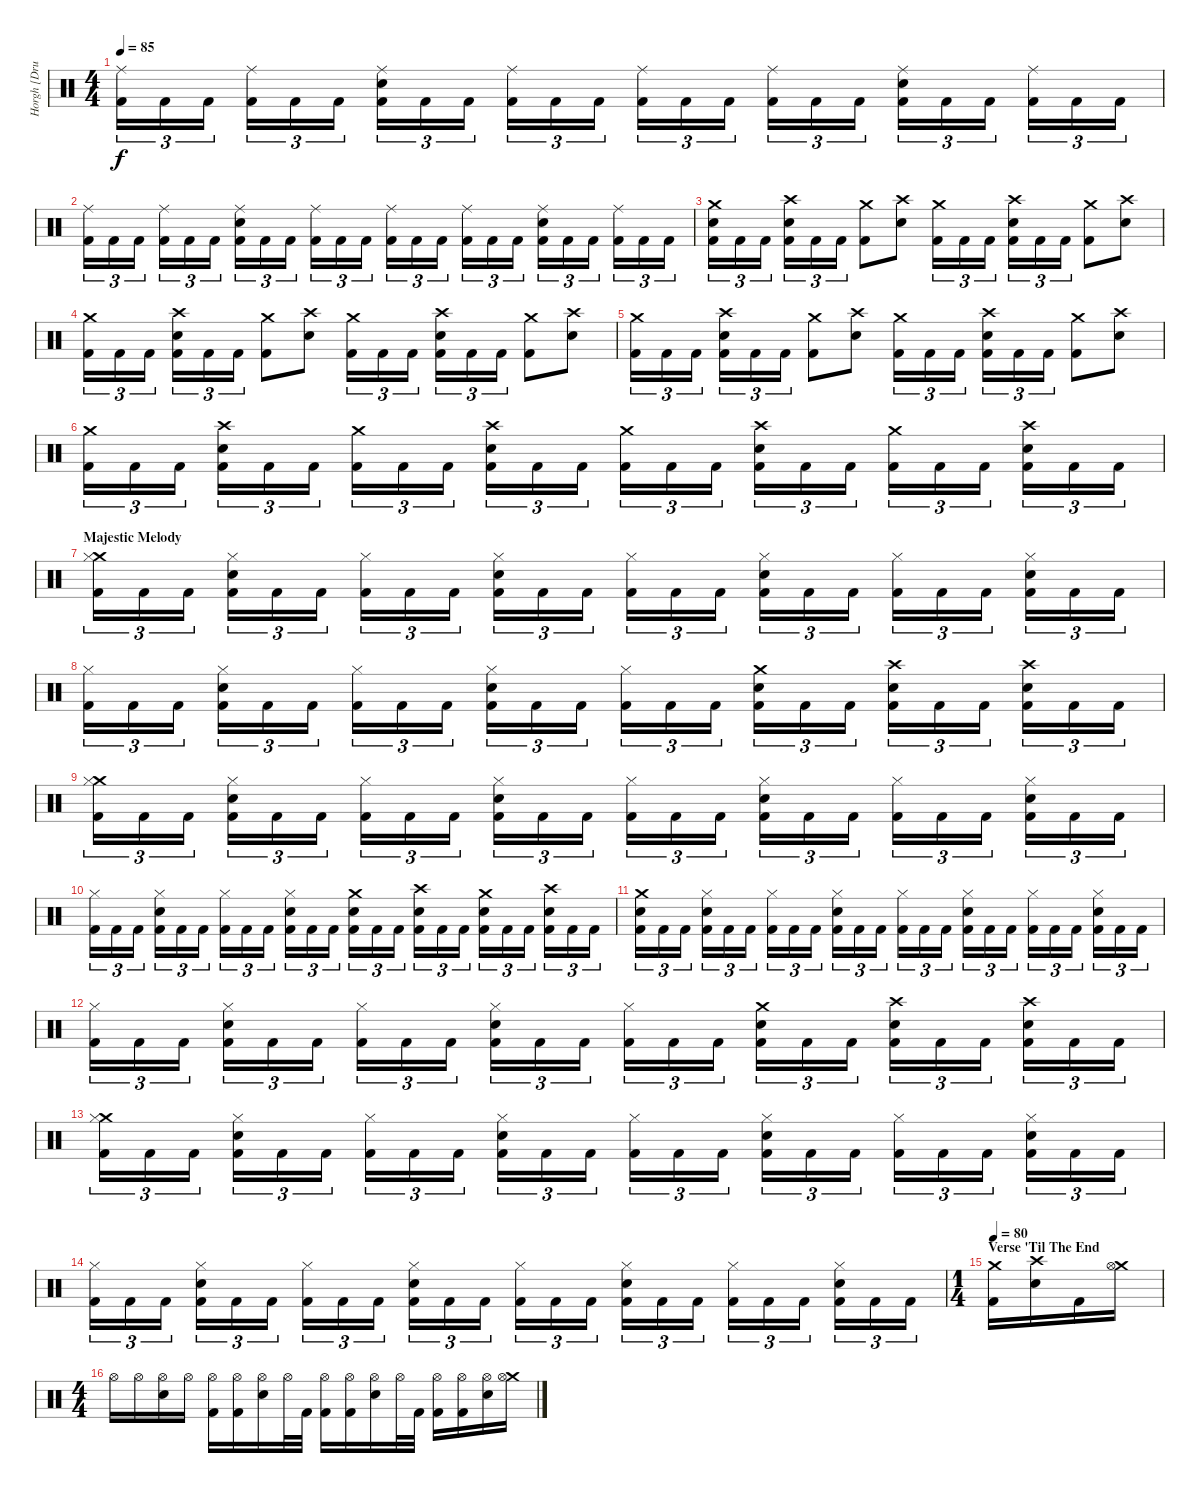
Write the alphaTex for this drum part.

\track ("Horgh [Drums]" "Horgh [Dru") {instrument percussion}
\staff {score}
\articulation defaults
\ts (4 4)
\tempo 85
\clef neutral
\ks c
("Ride (middle)" "Kick (hit) 2").16{tu (3 2) dy f} "Kick (hit) 2".16{tu (3 2)} "Kick (hit) 2".16{tu (3 2)} ("Ride (middle)" "Kick (hit) 2").16{tu (3 2)} "Kick (hit) 2".16{tu (3 2)} "Kick (hit) 2".16{tu (3 2)} ("Ride (middle)" "Snare (hit) 2" "Kick (hit) 2").16{tu (3 2)} "Kick (hit) 2".16{tu (3 2)} "Kick (hit) 2".16{tu (3 2)} ("Ride (middle)" "Kick (hit) 2").16{tu (3 2)} "Kick (hit) 2".16{tu (3 2)} "Kick (hit) 2".16{tu (3 2)} ("Ride (middle)" "Kick (hit) 2").16{tu (3 2)} "Kick (hit) 2".16{tu (3 2)} "Kick (hit) 2".16{tu (3 2)} ("Ride (middle)" "Kick (hit) 2").16{tu (3 2)} "Kick (hit) 2".16{tu (3 2)} "Kick (hit) 2".16{tu (3 2)} ("Ride (middle)" "Snare (hit) 2" "Kick (hit) 2").16{tu (3 2)} "Kick (hit) 2".16{tu (3 2)} "Kick (hit) 2".16{tu (3 2)} ("Ride (middle)" "Kick (hit) 2").16{tu (3 2)} "Kick (hit) 2".16{tu (3 2)} "Kick (hit) 2".16{tu (3 2)} |
("Ride (middle)" "Kick (hit) 2").16{tu (3 2)} "Kick (hit) 2".16{tu (3 2)} "Kick (hit) 2".16{tu (3 2)} ("Ride (middle)" "Kick (hit) 2").16{tu (3 2)} "Kick (hit) 2".16{tu (3 2)} "Kick (hit) 2".16{tu (3 2)} ("Ride (middle)" "Snare (hit) 2" "Kick (hit) 2").16{tu (3 2)} "Kick (hit) 2".16{tu (3 2)} "Kick (hit) 2".16{tu (3 2)} ("Ride (middle)" "Kick (hit) 2").16{tu (3 2)} "Kick (hit) 2".16{tu (3 2)} "Kick (hit) 2".16{tu (3 2)} ("Ride (middle)" "Kick (hit) 2").16{tu (3 2)} "Kick (hit) 2".16{tu (3 2)} "Kick (hit) 2".16{tu (3 2)} ("Ride (middle)" "Kick (hit) 2").16{tu (3 2)} "Kick (hit) 2".16{tu (3 2)} "Kick (hit) 2".16{tu (3 2)} ("Ride (middle)" "Snare (hit) 2" "Kick (hit) 2").16{tu (3 2)} "Kick (hit) 2".16{tu (3 2)} "Kick (hit) 2".16{tu (3 2)} ("Ride (middle)" "Kick (hit) 2").16{tu (3 2)} "Kick (hit) 2".16{tu (3 2)} "Kick (hit) 2".16{tu (3 2)} |
\section ("" "")
("Crash medium (hit)" "Snare (hit) 2" "Kick (hit) 2").16{tu (3 2)} "Kick (hit) 2".16{tu (3 2)} "Kick (hit) 2".16{tu (3 2)} ("Crash high (hit)" "Snare (hit) 2" "Kick (hit) 2").16{tu (3 2)} "Kick (hit) 2".16{tu (3 2)} "Kick (hit) 2".16{tu (3 2)} ("Crash medium (hit)" "Kick (hit) 2").8 ("Crash high (hit)" "Snare (hit) 2").8 ("Crash medium (hit)" "Kick (hit) 2").16{tu (3 2)} "Kick (hit) 2".16{tu (3 2)} "Kick (hit) 2".16{tu (3 2)} ("Crash high (hit)" "Snare (hit) 2" "Kick (hit) 2").16{tu (3 2)} "Kick (hit) 2".16{tu (3 2)} "Kick (hit) 2".16{tu (3 2)} ("Crash medium (hit)" "Kick (hit) 2").8 ("Crash high (hit)" "Snare (hit) 2").8 |
("Crash medium (hit)" "Kick (hit) 2").16{tu (3 2)} "Kick (hit) 2".16{tu (3 2)} "Kick (hit) 2".16{tu (3 2)} ("Crash high (hit)" "Snare (hit) 2" "Kick (hit) 2").16{tu (3 2)} "Kick (hit) 2".16{tu (3 2)} "Kick (hit) 2".16{tu (3 2)} ("Crash medium (hit)" "Kick (hit) 2").8 ("Crash high (hit)" "Snare (hit) 2").8 ("Crash medium (hit)" "Kick (hit) 2").16{tu (3 2)} "Kick (hit) 2".16{tu (3 2)} "Kick (hit) 2".16{tu (3 2)} ("Crash high (hit)" "Snare (hit) 2" "Kick (hit) 2").16{tu (3 2)} "Kick (hit) 2".16{tu (3 2)} "Kick (hit) 2".16{tu (3 2)} ("Crash medium (hit)" "Kick (hit) 2").8 ("Crash high (hit)" "Snare (hit) 2").8 |
("Crash medium (hit)" "Kick (hit) 2").16{tu (3 2)} "Kick (hit) 2".16{tu (3 2)} "Kick (hit) 2".16{tu (3 2)} ("Crash high (hit)" "Snare (hit) 2" "Kick (hit) 2").16{tu (3 2)} "Kick (hit) 2".16{tu (3 2)} "Kick (hit) 2".16{tu (3 2)} ("Crash medium (hit)" "Kick (hit) 2").8 ("Crash high (hit)" "Snare (hit) 2").8 ("Crash medium (hit)" "Kick (hit) 2").16{tu (3 2)} "Kick (hit) 2".16{tu (3 2)} "Kick (hit) 2".16{tu (3 2)} ("Crash high (hit)" "Snare (hit) 2" "Kick (hit) 2").16{tu (3 2)} "Kick (hit) 2".16{tu (3 2)} "Kick (hit) 2".16{tu (3 2)} ("Crash medium (hit)" "Kick (hit) 2").8 ("Crash high (hit)" "Snare (hit) 2").8 |
("Crash medium (hit)" "Kick (hit) 2").16{tu (3 2)} "Kick (hit) 2".16{tu (3 2)} "Kick (hit) 2".16{tu (3 2)} ("Crash high (hit)" "Snare (hit) 2" "Kick (hit) 2").16{tu (3 2)} "Kick (hit) 2".16{tu (3 2)} "Kick (hit) 2".16{tu (3 2)} ("Crash medium (hit)" "Kick (hit) 2").16{tu (3 2)} "Kick (hit) 2".16{tu (3 2)} "Kick (hit) 2".16{tu (3 2)} ("Crash high (hit)" "Snare (hit) 2" "Kick (hit) 2").16{tu (3 2)} "Kick (hit) 2".16{tu (3 2)} "Kick (hit) 2".16{tu (3 2)} ("Crash medium (hit)" "Kick (hit) 2").16{tu (3 2)} "Kick (hit) 2".16{tu (3 2)} "Kick (hit) 2".16{tu (3 2)} ("Crash high (hit)" "Snare (hit) 2" "Kick (hit) 2").16{tu (3 2)} "Kick (hit) 2".16{tu (3 2)} "Kick (hit) 2".16{tu (3 2)} ("Crash medium (hit)" "Kick (hit) 2").16{tu (3 2)} "Kick (hit) 2".16{tu (3 2)} "Kick (hit) 2".16{tu (3 2)} ("Crash high (hit)" "Snare (hit) 2" "Kick (hit) 2").16{tu (3 2)} "Kick (hit) 2".16{tu (3 2)} "Kick (hit) 2".16{tu (3 2)} |
\section ("" "Majestic Melody")
("Crash medium (hit)" "Hi-Hat (closed)" "Kick (hit) 2").16{tu (3 2)} "Kick (hit) 2".16{tu (3 2)} "Kick (hit) 2".16{tu (3 2)} ("Hi-Hat (closed)" "Snare (hit) 2" "Kick (hit) 2").16{tu (3 2)} "Kick (hit) 2".16{tu (3 2)} "Kick (hit) 2".16{tu (3 2)} ("Hi-Hat (closed)" "Kick (hit) 2").16{tu (3 2)} "Kick (hit) 2".16{tu (3 2)} "Kick (hit) 2".16{tu (3 2)} ("Hi-Hat (closed)" "Snare (hit) 2" "Kick (hit) 2").16{tu (3 2)} "Kick (hit) 2".16{tu (3 2)} "Kick (hit) 2".16{tu (3 2)} ("Hi-Hat (closed)" "Kick (hit) 2").16{tu (3 2)} "Kick (hit) 2".16{tu (3 2)} "Kick (hit) 2".16{tu (3 2)} ("Hi-Hat (closed)" "Snare (hit) 2" "Kick (hit) 2").16{tu (3 2)} "Kick (hit) 2".16{tu (3 2)} "Kick (hit) 2".16{tu (3 2)} ("Hi-Hat (closed)" "Kick (hit) 2").16{tu (3 2)} "Kick (hit) 2".16{tu (3 2)} "Kick (hit) 2".16{tu (3 2)} ("Hi-Hat (closed)" "Snare (hit) 2" "Kick (hit) 2").16{tu (3 2)} "Kick (hit) 2".16{tu (3 2)} "Kick (hit) 2".16{tu (3 2)} |
("Hi-Hat (closed)" "Kick (hit) 2").16{tu (3 2)} "Kick (hit) 2".16{tu (3 2)} "Kick (hit) 2".16{tu (3 2)} ("Hi-Hat (closed)" "Snare (hit) 2" "Kick (hit) 2").16{tu (3 2)} "Kick (hit) 2".16{tu (3 2)} "Kick (hit) 2".16{tu (3 2)} ("Hi-Hat (closed)" "Kick (hit) 2").16{tu (3 2)} "Kick (hit) 2".16{tu (3 2)} "Kick (hit) 2".16{tu (3 2)} ("Hi-Hat (closed)" "Snare (hit) 2" "Kick (hit) 2").16{tu (3 2)} "Kick (hit) 2".16{tu (3 2)} "Kick (hit) 2".16{tu (3 2)} ("Hi-Hat (closed)" "Kick (hit) 2").16{tu (3 2)} "Kick (hit) 2".16{tu (3 2)} "Kick (hit) 2".16{tu (3 2)} ("Crash medium (hit)" "Snare (hit) 2" "Kick (hit) 2").16{tu (3 2)} "Kick (hit) 2".16{tu (3 2)} "Kick (hit) 2".16{tu (3 2)} ("Crash high (hit)" "Snare (hit) 2" "Kick (hit) 2").16{tu (3 2)} "Kick (hit) 2".16{tu (3 2)} "Kick (hit) 2".16{tu (3 2)} ("Crash high (hit)" "Snare (hit) 2" "Kick (hit) 2").16{tu (3 2)} "Kick (hit) 2".16{tu (3 2)} "Kick (hit) 2".16{tu (3 2)} |
("Crash medium (hit)" "Hi-Hat (closed)" "Kick (hit) 2").16{tu (3 2)} "Kick (hit) 2".16{tu (3 2)} "Kick (hit) 2".16{tu (3 2)} ("Hi-Hat (closed)" "Snare (hit) 2" "Kick (hit) 2").16{tu (3 2)} "Kick (hit) 2".16{tu (3 2)} "Kick (hit) 2".16{tu (3 2)} ("Hi-Hat (closed)" "Kick (hit) 2").16{tu (3 2)} "Kick (hit) 2".16{tu (3 2)} "Kick (hit) 2".16{tu (3 2)} ("Hi-Hat (closed)" "Snare (hit) 2" "Kick (hit) 2").16{tu (3 2)} "Kick (hit) 2".16{tu (3 2)} "Kick (hit) 2".16{tu (3 2)} ("Hi-Hat (closed)" "Kick (hit) 2").16{tu (3 2)} "Kick (hit) 2".16{tu (3 2)} "Kick (hit) 2".16{tu (3 2)} ("Hi-Hat (closed)" "Snare (hit) 2" "Kick (hit) 2").16{tu (3 2)} "Kick (hit) 2".16{tu (3 2)} "Kick (hit) 2".16{tu (3 2)} ("Hi-Hat (closed)" "Kick (hit) 2").16{tu (3 2)} "Kick (hit) 2".16{tu (3 2)} "Kick (hit) 2".16{tu (3 2)} ("Hi-Hat (closed)" "Snare (hit) 2" "Kick (hit) 2").16{tu (3 2)} "Kick (hit) 2".16{tu (3 2)} "Kick (hit) 2".16{tu (3 2)} |
("Hi-Hat (closed)" "Kick (hit) 2").16{tu (3 2)} "Kick (hit) 2".16{tu (3 2)} "Kick (hit) 2".16{tu (3 2)} ("Hi-Hat (closed)" "Snare (hit) 2" "Kick (hit) 2").16{tu (3 2)} "Kick (hit) 2".16{tu (3 2)} "Kick (hit) 2".16{tu (3 2)} ("Hi-Hat (closed)" "Kick (hit) 2").16{tu (3 2)} "Kick (hit) 2".16{tu (3 2)} "Kick (hit) 2".16{tu (3 2)} ("Hi-Hat (closed)" "Snare (hit) 2" "Kick (hit) 2").16{tu (3 2)} "Kick (hit) 2".16{tu (3 2)} "Kick (hit) 2".16{tu (3 2)} ("Crash medium (hit)" "Snare (hit) 2" "Kick (hit) 2").16{tu (3 2)} "Kick (hit) 2".16{tu (3 2)} "Kick (hit) 2".16{tu (3 2)} ("Crash high (hit)" "Snare (hit) 2" "Kick (hit) 2").16{tu (3 2)} "Kick (hit) 2".16{tu (3 2)} "Kick (hit) 2".16{tu (3 2)} ("Crash medium (hit)" "Snare (hit) 2" "Kick (hit) 2").16{tu (3 2)} "Kick (hit) 2".16{tu (3 2)} "Kick (hit) 2".16{tu (3 2)} ("Crash high (hit)" "Snare (hit) 2" "Kick (hit) 2").16{tu (3 2)} "Kick (hit) 2".16{tu (3 2)} "Kick (hit) 2".16{tu (3 2)} |
("Crash medium (hit)" "Snare (hit) 2" "Kick (hit) 2").16{tu (3 2)} "Kick (hit) 2".16{tu (3 2)} "Kick (hit) 2".16{tu (3 2)} ("Hi-Hat (closed)" "Snare (hit) 2" "Kick (hit) 2").16{tu (3 2)} "Kick (hit) 2".16{tu (3 2)} "Kick (hit) 2".16{tu (3 2)} ("Hi-Hat (closed)" "Kick (hit) 2").16{tu (3 2)} "Kick (hit) 2".16{tu (3 2)} "Kick (hit) 2".16{tu (3 2)} ("Hi-Hat (closed)" "Snare (hit) 2" "Kick (hit) 2").16{tu (3 2)} "Kick (hit) 2".16{tu (3 2)} "Kick (hit) 2".16{tu (3 2)} ("Hi-Hat (closed)" "Kick (hit) 2").16{tu (3 2)} "Kick (hit) 2".16{tu (3 2)} "Kick (hit) 2".16{tu (3 2)} ("Hi-Hat (closed)" "Snare (hit) 2" "Kick (hit) 2").16{tu (3 2)} "Kick (hit) 2".16{tu (3 2)} "Kick (hit) 2".16{tu (3 2)} ("Hi-Hat (closed)" "Kick (hit) 2").16{tu (3 2)} "Kick (hit) 2".16{tu (3 2)} "Kick (hit) 2".16{tu (3 2)} ("Hi-Hat (closed)" "Snare (hit) 2" "Kick (hit) 2").16{tu (3 2)} "Kick (hit) 2".16{tu (3 2)} "Kick (hit) 2".16{tu (3 2)} |
("Hi-Hat (closed)" "Kick (hit) 2").16{tu (3 2)} "Kick (hit) 2".16{tu (3 2)} "Kick (hit) 2".16{tu (3 2)} ("Hi-Hat (closed)" "Snare (hit) 2" "Kick (hit) 2").16{tu (3 2)} "Kick (hit) 2".16{tu (3 2)} "Kick (hit) 2".16{tu (3 2)} ("Hi-Hat (closed)" "Kick (hit) 2").16{tu (3 2)} "Kick (hit) 2".16{tu (3 2)} "Kick (hit) 2".16{tu (3 2)} ("Hi-Hat (closed)" "Snare (hit) 2" "Kick (hit) 2").16{tu (3 2)} "Kick (hit) 2".16{tu (3 2)} "Kick (hit) 2".16{tu (3 2)} ("Hi-Hat (closed)" "Kick (hit) 2").16{tu (3 2)} "Kick (hit) 2".16{tu (3 2)} "Kick (hit) 2".16{tu (3 2)} ("Crash medium (hit)" "Snare (hit) 2" "Kick (hit) 2").16{tu (3 2)} "Kick (hit) 2".16{tu (3 2)} "Kick (hit) 2".16{tu (3 2)} ("Crash high (hit)" "Snare (hit) 2" "Kick (hit) 2").16{tu (3 2)} "Kick (hit) 2".16{tu (3 2)} "Kick (hit) 2".16{tu (3 2)} ("Crash high (hit)" "Snare (hit) 2" "Kick (hit) 2").16{tu (3 2)} "Kick (hit) 2".16{tu (3 2)} "Kick (hit) 2".16{tu (3 2)} |
("Crash medium (hit)" "Hi-Hat (closed)" "Kick (hit) 2").16{tu (3 2)} "Kick (hit) 2".16{tu (3 2)} "Kick (hit) 2".16{tu (3 2)} ("Hi-Hat (closed)" "Snare (hit) 2" "Kick (hit) 2").16{tu (3 2)} "Kick (hit) 2".16{tu (3 2)} "Kick (hit) 2".16{tu (3 2)} ("Hi-Hat (closed)" "Kick (hit) 2").16{tu (3 2)} "Kick (hit) 2".16{tu (3 2)} "Kick (hit) 2".16{tu (3 2)} ("Hi-Hat (closed)" "Snare (hit) 2" "Kick (hit) 2").16{tu (3 2)} "Kick (hit) 2".16{tu (3 2)} "Kick (hit) 2".16{tu (3 2)} ("Hi-Hat (closed)" "Kick (hit) 2").16{tu (3 2)} "Kick (hit) 2".16{tu (3 2)} "Kick (hit) 2".16{tu (3 2)} ("Hi-Hat (closed)" "Snare (hit) 2" "Kick (hit) 2").16{tu (3 2)} "Kick (hit) 2".16{tu (3 2)} "Kick (hit) 2".16{tu (3 2)} ("Hi-Hat (closed)" "Kick (hit) 2").16{tu (3 2)} "Kick (hit) 2".16{tu (3 2)} "Kick (hit) 2".16{tu (3 2)} ("Hi-Hat (closed)" "Snare (hit) 2" "Kick (hit) 2").16{tu (3 2)} "Kick (hit) 2".16{tu (3 2)} "Kick (hit) 2".16{tu (3 2)} |
("Hi-Hat (closed)" "Kick (hit) 2").16{tu (3 2)} "Kick (hit) 2".16{tu (3 2)} "Kick (hit) 2".16{tu (3 2)} ("Hi-Hat (closed)" "Snare (hit) 2" "Kick (hit) 2").16{tu (3 2)} "Kick (hit) 2".16{tu (3 2)} "Kick (hit) 2".16{tu (3 2)} ("Hi-Hat (closed)" "Kick (hit) 2").16{tu (3 2)} "Kick (hit) 2".16{tu (3 2)} "Kick (hit) 2".16{tu (3 2)} ("Hi-Hat (closed)" "Snare (hit) 2" "Kick (hit) 2").16{tu (3 2)} "Kick (hit) 2".16{tu (3 2)} "Kick (hit) 2".16{tu (3 2)} ("Hi-Hat (closed)" "Kick (hit) 2").16{tu (3 2)} "Kick (hit) 2".16{tu (3 2)} "Kick (hit) 2".16{tu (3 2)} ("Hi-Hat (closed)" "Snare (hit) 2" "Kick (hit) 2").16{tu (3 2)} "Kick (hit) 2".16{tu (3 2)} "Kick (hit) 2".16{tu (3 2)} ("Hi-Hat (closed)" "Kick (hit) 2").16{tu (3 2)} "Kick (hit) 2".16{tu (3 2)} "Kick (hit) 2".16{tu (3 2)} ("Hi-Hat (closed)" "Snare (hit) 2" "Kick (hit) 2").16{tu (3 2)} "Kick (hit) 2".16{tu (3 2)} "Kick (hit) 2".16{tu (3 2)} |
\ts (1 4)
\section ("" "Verse 'Til The End")
\tempo 80
("Crash medium (hit)" "Kick (hit) 2").16 ("Crash high (hit)" "Snare (hit) 2").16 "Kick (hit) 2".16 ("Crash medium (hit)" "Hi-Hat (open)").16 |
\ts (4 4)
"Hi-Hat (open)".16 "Hi-Hat (open)".16 ("Hi-Hat (open)" "Snare (hit) 2").16 "Hi-Hat (open)".16 ("Hi-Hat (open)" "Kick (hit) 2").16 ("Hi-Hat (open)" "Kick (hit) 2").16 ("Hi-Hat (open)" "Snare (hit) 2").16 "Hi-Hat (open)".32 "Kick (hit) 2".32 ("Hi-Hat (open)" "Kick (hit) 2").16 ("Hi-Hat (open)" "Kick (hit) 2").16 ("Hi-Hat (open)" "Snare (hit) 2").16 "Hi-Hat (open)".32 "Kick (hit) 2".32 ("Hi-Hat (open)" "Kick (hit) 2").16 ("Hi-Hat (open)" "Kick (hit) 2").16 ("Hi-Hat (open)" "Snare (hit) 2").16 ("Crash medium (hit)" "Hi-Hat (open)").16
